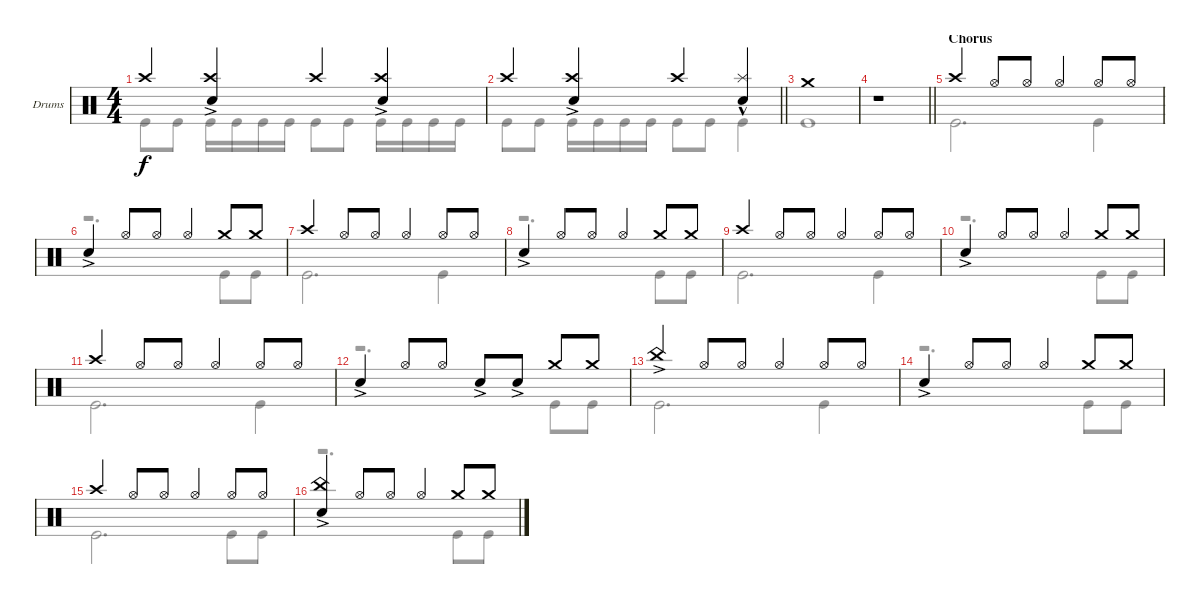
\bracketExtendMode groupsimilarinstruments
\firstSystemTrackNameOrientation horizontal
\otherSystemsTrackNameOrientation horizontal
\track ("Drumkit" "Drums") {instrument percussion}
\staff {score}
\articulation defaults
\voice
\ts (4 4)
\tempo (184 hide)
\clef neutral
\ks c "Crash high (hit)".4{dy f}
("Crash high (hit)" "Snare (hit) 2"{ac}).4 "Crash high (hit)".4 ("Crash high (hit)" "Snare (hit) 2"{ac}).4 |
\barLineRight lightlight "Crash high (hit)".4
("Crash high (hit)" "Snare (hit) 2"{ac}).4 "Crash high (hit)".4 ("Splash (hit)"{hac} "Snare (hit) 2").4 |
\section ("" "")
"Crash medium (hit)".1 |
\tempo (184 "Moderately Slow Rock" 1 hide)
\barLineRight lightlight
r.1 |
\section ("" "Chorus")
\tempo (184 "Moderately Slow Rock" hide)
"Crash high (hit)".4 "Hi-Hat (open)".8 "Hi-Hat (open)".8 "Hi-Hat (open)".4 "Hi-Hat (open)".8 "Hi-Hat (open)".8 |
"Snare (hit) 2"{ac}.4 "Hi-Hat (open)".8 "Hi-Hat (open)".8 "Hi-Hat (open)".4 "Crash medium (hit)".8 "Crash medium (hit)".8 |
"Crash high (hit)".4 "Hi-Hat (open)".8 "Hi-Hat (open)".8 "Hi-Hat (open)".4 "Hi-Hat (open)".8 "Hi-Hat (open)".8 |
"Snare (hit) 2"{ac}.4 "Hi-Hat (open)".8 "Hi-Hat (open)".8 "Hi-Hat (open)".4 "Crash medium (hit)".8 "Crash medium (hit)".8 |
"Crash high (hit)".4 "Hi-Hat (open)".8 "Hi-Hat (open)".8 "Hi-Hat (open)".4 "Hi-Hat (open)".8 "Hi-Hat (open)".8 |
"Snare (hit) 2"{ac}.4 "Hi-Hat (open)".8 "Hi-Hat (open)".8 "Hi-Hat (open)".4 "Crash medium (hit)".8 "Crash medium (hit)".8 |
"Crash high (hit)".4 "Hi-Hat (open)".8 "Hi-Hat (open)".8 "Hi-Hat (open)".4 "Hi-Hat (open)".8 "Hi-Hat (open)".8 |
"Snare (hit) 2"{ac}.4 "Hi-Hat (open)".8 "Hi-Hat (open)".8 "Snare (hit) 2"{ac}.8 "Snare (hit) 2"{ac}.8 "Crash medium (hit)".8 "Crash medium (hit)".8 |
"China (hit)"{ac}.4 "Hi-Hat (open)".8 "Hi-Hat (open)".8 "Hi-Hat (open)".4 "Hi-Hat (open)".8 "Hi-Hat (open)".8 |
"Snare (hit) 2"{ac}.4 "Hi-Hat (open)".8 "Hi-Hat (open)".8 "Hi-Hat (open)".4 "Crash medium (hit)".8 "Crash medium (hit)".8 |
"Crash high (hit)".4 "Hi-Hat (open)".8 "Hi-Hat (open)".8 "Hi-Hat (open)".4 "Hi-Hat (open)".8 "Hi-Hat (open)".8 |
("China (hit)"{ac} "Snare (hit) 2"{ac}).4 "Hi-Hat (open)".8 "Hi-Hat (open)".8 "Hi-Hat (open)".4 "Crash medium (hit)".8 "Crash medium (hit)".8
\voice
\clef neutral
\ottava regular
\simile none
\ks c "Kick (hit)".8{dy f} "Kick (hit)".8 "Kick (hit)".16 "Kick (hit)".16 "Kick (hit)".16 "Kick (hit)".16 "Kick (hit)".8 "Kick (hit)".8 "Kick (hit)".16 "Kick (hit)".16 "Kick (hit)".16 "Kick (hit)".16
|
\barLineRight lightlight "Kick (hit)".8 "Kick (hit)".8 "Kick (hit)".16 "Kick (hit)".16 "Kick (hit)".16 "Kick (hit)".16 "Kick (hit)".8 "Kick (hit)".8 "Kick (hit)".4
|
"Kick (hit)".1 |
\barLineRight lightlight
r.1 |
"Kick (hit)".2{d} "Kick (hit)".4 |
r.2{d} "Kick (hit)".8 "Kick (hit)".8 |
"Kick (hit)".2{d} "Kick (hit)".4 |
r.2{d} "Kick (hit)".8 "Kick (hit)".8 |
"Kick (hit)".2{d} "Kick (hit)".4 |
r.2{d} "Kick (hit)".8 "Kick (hit)".8 |
"Kick (hit)".2{d} "Kick (hit)".4 |
r.2{d} "Kick (hit)".8 "Kick (hit)".8 |
"Kick (hit)".2{d} "Kick (hit)".4 |
r.2{d} "Kick (hit)".8 "Kick (hit)".8 |
"Kick (hit)".2{d} "Kick (hit)".8 "Kick (hit)".8 |
r.2{d} "Kick (hit)".8 "Kick (hit)".8
